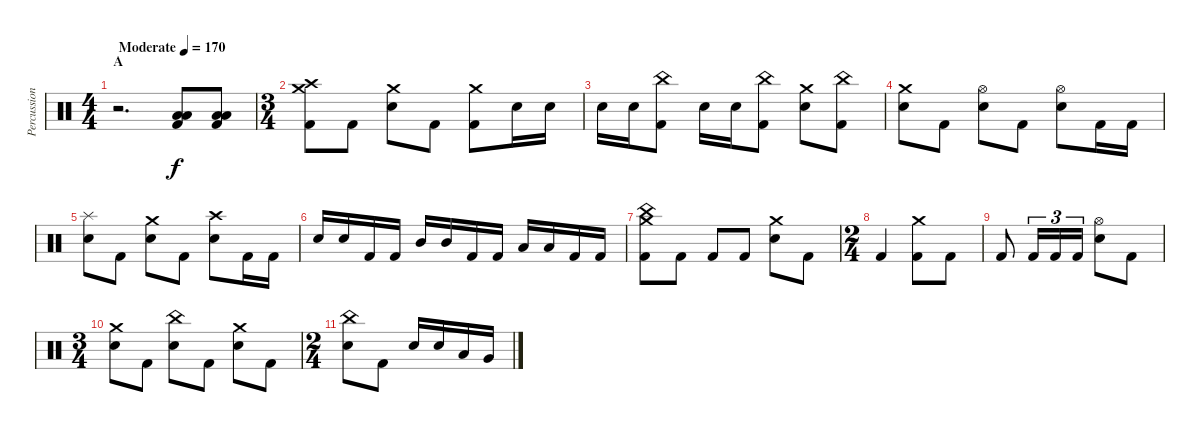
\track ("Percussion" "Percussion") {instrument percussion}
\staff {score}
\articulation defaults
\ts (4 4)
\section ("" "A")
\tempo (170 "Moderate")
\clef neutral
\ks c
r.2{d dy f} ("Low Tom (hit)" "Low Floor Tom (hit)" "Kick (hit) 2").8 ("Low Tom (hit)" "Low Floor Tom (hit)" "Kick (hit) 2").8 |
\ts (3 4)
("Crash medium (hit)" "Crash high (hit)" "Kick (hit) 2").8 "Kick (hit) 2".8 ("Crash medium (hit)" "Electric Snare (hit)").8 "Kick (hit) 2".8 ("Crash medium (hit)" "Kick (hit) 2").8 "Electric Snare (hit)".16 "Electric Snare (hit)".16 |
"Electric Snare (hit)".16 "Electric Snare (hit)".16 ("China (hit)" "Kick (hit) 2").8 "Electric Snare (hit)".16 "Electric Snare (hit)".16 ("China (hit)" "Kick (hit) 2").8 ("Crash medium (hit)" "Electric Snare (hit)").8 ("China (hit)" "Kick (hit) 2").8 |
("Crash medium (hit)" "Electric Snare (hit)").8 "Kick (hit) 2".8 ("Hi-Hat (open)" "Electric Snare (hit)").8 "Kick (hit) 2".8 ("Hi-Hat (open)" "Electric Snare (hit)").8 "Kick (hit) 2".16 "Kick (hit) 2".16 |
("Splash (hit)" "Electric Snare (hit)").8 "Kick (hit) 2".8 ("Crash medium (hit)" "Electric Snare (hit)").8 "Kick (hit) 2".8 ("Crash high (hit)" "Electric Snare (hit)").8 "Kick (hit) 2".16 "Kick (hit) 2".16 |
"Electric Snare (hit)".16 "Electric Snare (hit)".16 "Kick (hit) 2".16 "Kick (hit) 2".16 "Mid Tom (hit)".16 "Mid Tom (hit)".16 "Kick (hit) 2".16 "Kick (hit) 2".16 "Low Tom (hit)".16 "Low Tom (hit)".16 "Kick (hit) 2".16 "Kick (hit) 2".16 |
("Crash medium (hit)" "China (hit)" "Kick (hit) 2").8 "Kick (hit) 2".8 "Kick (hit) 2".8 "Kick (hit) 2".8 ("Crash medium (hit)" "Electric Snare (hit)").8 "Kick (hit) 2".8 |
\ts (2 4)
"Kick (hit) 2".4 ("Crash medium (hit)" "Kick (hit) 2").8 "Kick (hit) 2".8 |
"Kick (hit) 2".8 "Kick (hit) 2".16{tu (3 2)} "Kick (hit) 2".16{tu (3 2)} "Kick (hit) 2".16{tu (3 2)} ("Hi-Hat (open)" "Electric Snare (hit)").8 "Kick (hit) 2".8 |
\ts (3 4)
("Crash medium (hit)" "Electric Snare (hit)").8 "Kick (hit) 2".8 ("China (hit)" "Electric Snare (hit)").8 "Kick (hit) 2".8 ("Crash medium (hit)" "Electric Snare (hit)").8 "Kick (hit) 2".8 |
\ts (2 4)
("China (hit)" "Electric Snare (hit)").8 "Kick (hit) 2".8 "Electric Snare (hit)".16 "Electric Snare (hit)".16 "Low Tom (hit)".16 "Very Low Tom (hit)".16
